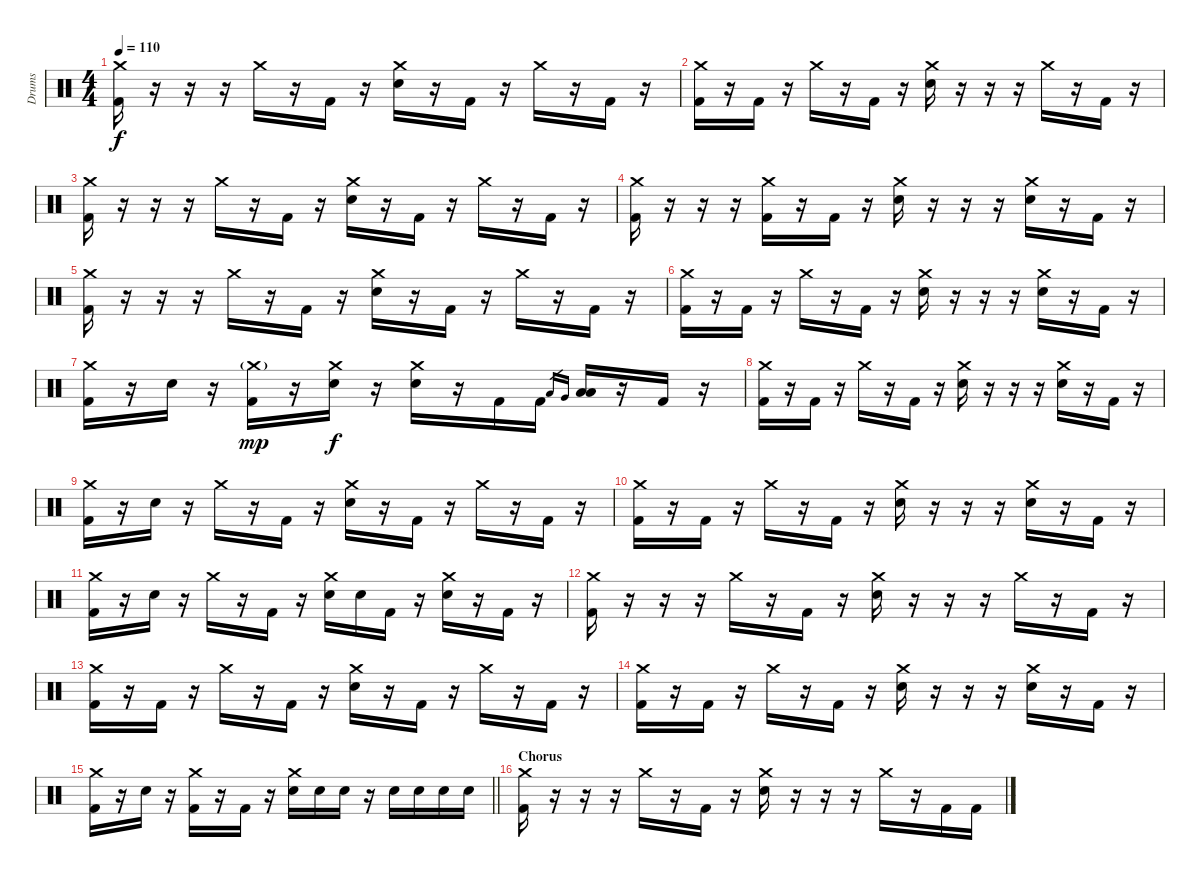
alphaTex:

\track ("Drums" "Drums") {instrument percussion}
\staff {score}
\articulation defaults
\ts (4 4)
\tempo 110
\clef neutral
\ks c
("Crash medium (hit)" "Kick (hit) 2").16{dy f} r.16 r.16 r.16 "Crash medium (hit)".16 r.16 "Kick (hit) 2".16 r.16 ("Crash medium (hit)" "Electric Snare (hit)").16 r.16 "Kick (hit) 2".16 r.16 "Crash medium (hit)".16 r.16 "Kick (hit) 2".16 r.16 |
("Crash medium (hit)" "Kick (hit) 2").16 r.16 "Kick (hit) 2".16 r.16 "Crash medium (hit)".16 r.16 "Kick (hit) 2".16 r.16 ("Crash medium (hit)" "Electric Snare (hit)").16 r.16 r.16 r.16 "Crash medium (hit)".16 r.16 "Kick (hit) 2".16 r.16 |
("Crash medium (hit)" "Kick (hit) 2").16 r.16 r.16 r.16 "Crash medium (hit)".16 r.16 "Kick (hit) 2".16 r.16 ("Crash medium (hit)" "Electric Snare (hit)").16 r.16 "Kick (hit) 2".16 r.16 "Crash medium (hit)".16 r.16 "Kick (hit) 2".16 r.16 |
("Crash medium (hit)" "Kick (hit) 2").16 r.16 r.16 r.16 ("Crash medium (hit)" "Kick (hit) 2").16 r.16 "Kick (hit) 2".16 r.16 ("Crash medium (hit)" "Electric Snare (hit)").16 r.16 r.16 r.16 ("Crash medium (hit)" "Electric Snare (hit)").16 r.16 "Kick (hit) 2".16 r.16 |
("Crash medium (hit)" "Kick (hit) 2").16 r.16 r.16 r.16 "Crash medium (hit)".16 r.16 "Kick (hit) 2".16 r.16 ("Crash medium (hit)" "Electric Snare (hit)").16 r.16 "Kick (hit) 2".16 r.16 "Crash medium (hit)".16 r.16 "Kick (hit) 2".16 r.16 |
("Crash medium (hit)" "Kick (hit) 2").16 r.16 "Kick (hit) 2".16 r.16 "Crash medium (hit)".16 r.16 "Kick (hit) 2".16 r.16 ("Crash medium (hit)" "Electric Snare (hit)").16 r.16 r.16 r.16 ("Crash medium (hit)" "Electric Snare (hit)").16 r.16 "Kick (hit) 2".16 r.16 |
("Crash medium (hit)" "Kick (hit) 2").16 r.16 "Electric Snare (hit)".16 r.16 ("Crash medium (hit)"{g} "Kick (hit) 2").16{dy mp} r.16 ("Crash medium (hit)" "Electric Snare (hit)").16{dy f} r.16 ("Crash medium (hit)" "Electric Snare (hit)").16 r.16 "Kick (hit) 2".16 "Kick (hit) 2".16 "Low Tom (hit)".16{gr} "Very Low Tom (hit)".16{gr} ("Low Tom (hit)" "Low Tom (hit)").16 r.16 "Kick (hit) 2".16 r.16 |
("Crash medium (hit)" "Kick (hit) 2").16 r.16 "Kick (hit) 2".16 r.16 "Crash medium (hit)".16 r.16 "Kick (hit) 2".16 r.16 ("Crash medium (hit)" "Electric Snare (hit)").16 r.16 r.16 r.16 ("Crash medium (hit)" "Electric Snare (hit)").16 r.16 "Kick (hit) 2".16 r.16 |
("Crash medium (hit)" "Kick (hit) 2").16 r.16 "Electric Snare (hit)".16 r.16 "Crash medium (hit)".16 r.16 "Kick (hit) 2".16 r.16 ("Crash medium (hit)" "Electric Snare (hit)").16 r.16 "Kick (hit) 2".16 r.16 "Crash medium (hit)".16 r.16 "Kick (hit) 2".16 r.16 |
("Crash medium (hit)" "Kick (hit) 2").16 r.16 "Kick (hit) 2".16 r.16 "Crash medium (hit)".16 r.16 "Kick (hit) 2".16 r.16 ("Crash medium (hit)" "Electric Snare (hit)").16 r.16 r.16 r.16 ("Crash medium (hit)" "Electric Snare (hit)").16 r.16 "Kick (hit) 2".16 r.16 |
("Crash medium (hit)" "Kick (hit) 2").16 r.16 "Electric Snare (hit)".16 r.16 "Crash medium (hit)".16 r.16 "Kick (hit) 2".16 r.16 ("Crash medium (hit)" "Electric Snare (hit)").16 "Electric Snare (hit)".16 "Kick (hit) 2".16 r.16 ("Crash medium (hit)" "Electric Snare (hit)").16 r.16 "Kick (hit) 2".16 r.16 |
("Crash medium (hit)" "Kick (hit) 2").16 r.16 r.16 r.16 "Crash medium (hit)".16 r.16 "Kick (hit) 2".16 r.16 ("Crash medium (hit)" "Electric Snare (hit)").16 r.16 r.16 r.16 "Crash medium (hit)".16 r.16 "Kick (hit) 2".16 r.16 |
("Crash medium (hit)" "Kick (hit) 2").16 r.16 "Kick (hit) 2".16 r.16 "Crash medium (hit)".16 r.16 "Kick (hit) 2".16 r.16 ("Crash medium (hit)" "Electric Snare (hit)").16 r.16 "Kick (hit) 2".16 r.16 "Crash medium (hit)".16 r.16 "Kick (hit) 2".16 r.16 |
("Crash medium (hit)" "Kick (hit) 2").16 r.16 "Kick (hit) 2".16 r.16 "Crash medium (hit)".16 r.16 "Kick (hit) 2".16 r.16 ("Crash medium (hit)" "Electric Snare (hit)").16 r.16 r.16 r.16 ("Crash medium (hit)" "Electric Snare (hit)").16 r.16 "Kick (hit) 2".16 r.16 |
\barLineRight lightlight
("Crash medium (hit)" "Kick (hit) 2").16 r.16 "Electric Snare (hit)".16 r.16 ("Crash medium (hit)" "Kick (hit) 2").16 r.16 "Kick (hit) 2".16 r.16 ("Crash medium (hit)" "Electric Snare (hit)").16 "Electric Snare (hit)".16 "Electric Snare (hit)".16 r.16 "Electric Snare (hit)".16 "Electric Snare (hit)".16 "Electric Snare (hit)".16 "Electric Snare (hit)".16 |
\section ("" "Chorus")
("Crash medium (hit)" "Kick (hit) 2").16 r.16 r.16 r.16 "Crash medium (hit)".16 r.16 "Kick (hit) 2".16 r.16 ("Crash medium (hit)" "Electric Snare (hit)").16 r.16 r.16 r.16 "Crash medium (hit)".16 r.16 "Kick (hit) 2".16 "Kick (hit) 2".16
